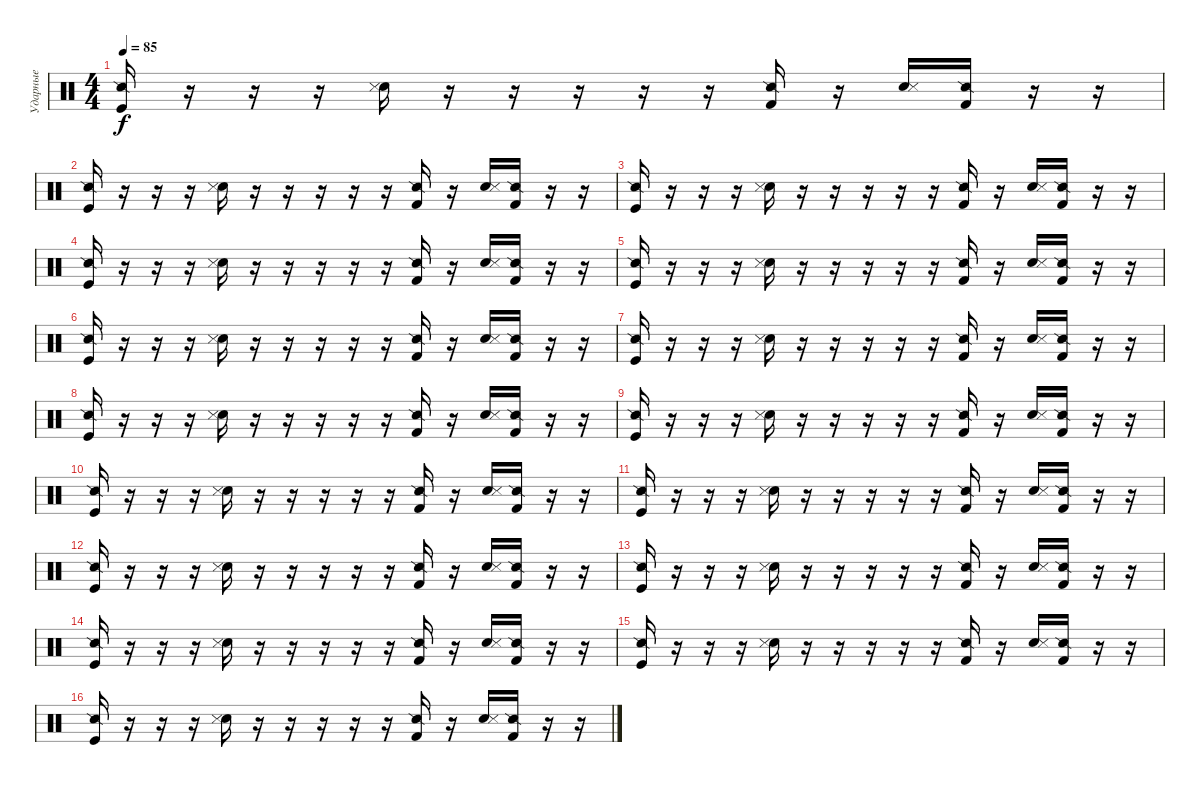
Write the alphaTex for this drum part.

\track ("Ударные" "Ударные") {instrument percussion}
\staff {score}
\articulation defaults
\ts (4 4)
\tempo 85
\clef neutral
\ks c
("Kick (hit)" "Snare (side stick) 2").16{dy f} r.16 r.16 r.16 ("Snare (hit) 2" "Snare (side stick) 3").16 r.16 r.16 r.16 r.16 r.16 ("Kick (hit) 2" "Snare (side stick) 2").16 r.16 ("Snare (hit) 2" "Snare (side stick) 3").16 ("Kick (hit) 2" "Snare (side stick) 2").16 r.16 r.16 |
("Kick (hit)" "Snare (side stick) 2").16 r.16 r.16 r.16 ("Snare (hit) 2" "Snare (side stick) 3").16 r.16 r.16 r.16 r.16 r.16 ("Kick (hit) 2" "Snare (side stick) 2").16 r.16 ("Snare (hit) 2" "Snare (side stick) 3").16 ("Kick (hit) 2" "Snare (side stick) 2").16 r.16 r.16 |
("Kick (hit)" "Snare (side stick) 2").16 r.16 r.16 r.16 ("Snare (hit) 2" "Snare (side stick) 3").16 r.16 r.16 r.16 r.16 r.16 ("Kick (hit) 2" "Snare (side stick) 2").16 r.16 ("Snare (hit) 2" "Snare (side stick) 3").16 ("Kick (hit) 2" "Snare (side stick) 2").16 r.16 r.16 |
("Kick (hit)" "Snare (side stick) 2").16 r.16 r.16 r.16 ("Snare (hit) 2" "Snare (side stick) 3").16 r.16 r.16 r.16 r.16 r.16 ("Kick (hit) 2" "Snare (side stick) 2").16 r.16 ("Snare (hit) 2" "Snare (side stick) 3").16 ("Kick (hit) 2" "Snare (side stick) 2").16 r.16 r.16 |
("Kick (hit)" "Snare (side stick) 2").16 r.16 r.16 r.16 ("Snare (hit) 2" "Snare (side stick) 3").16 r.16 r.16 r.16 r.16 r.16 ("Kick (hit) 2" "Snare (side stick) 2").16 r.16 ("Snare (hit) 2" "Snare (side stick) 3").16 ("Kick (hit) 2" "Snare (side stick) 2").16 r.16 r.16 |
("Kick (hit)" "Snare (side stick) 2").16 r.16 r.16 r.16 ("Snare (hit) 2" "Snare (side stick) 3").16 r.16 r.16 r.16 r.16 r.16 ("Kick (hit) 2" "Snare (side stick) 2").16 r.16 ("Snare (hit) 2" "Snare (side stick) 3").16 ("Kick (hit) 2" "Snare (side stick) 2").16 r.16 r.16 |
("Kick (hit)" "Snare (side stick) 2").16 r.16 r.16 r.16 ("Snare (hit) 2" "Snare (side stick) 3").16 r.16 r.16 r.16 r.16 r.16 ("Kick (hit) 2" "Snare (side stick) 2").16 r.16 ("Snare (hit) 2" "Snare (side stick) 3").16 ("Kick (hit) 2" "Snare (side stick) 2").16 r.16 r.16 |
("Kick (hit)" "Snare (side stick) 2").16 r.16 r.16 r.16 ("Snare (hit) 2" "Snare (side stick) 3").16 r.16 r.16 r.16 r.16 r.16 ("Kick (hit) 2" "Snare (side stick) 2").16 r.16 ("Snare (hit) 2" "Snare (side stick) 3").16 ("Kick (hit) 2" "Snare (side stick) 2").16 r.16 r.16 |
("Kick (hit)" "Snare (side stick) 2").16 r.16 r.16 r.16 ("Snare (hit) 2" "Snare (side stick) 3").16 r.16 r.16 r.16 r.16 r.16 ("Kick (hit) 2" "Snare (side stick) 2").16 r.16 ("Snare (hit) 2" "Snare (side stick) 3").16 ("Kick (hit) 2" "Snare (side stick) 2").16 r.16 r.16 |
("Kick (hit)" "Snare (side stick) 2").16 r.16 r.16 r.16 ("Snare (hit) 2" "Snare (side stick) 3").16 r.16 r.16 r.16 r.16 r.16 ("Kick (hit) 2" "Snare (side stick) 2").16 r.16 ("Snare (hit) 2" "Snare (side stick) 3").16 ("Kick (hit) 2" "Snare (side stick) 2").16 r.16 r.16 |
("Kick (hit)" "Snare (side stick) 2").16 r.16 r.16 r.16 ("Snare (hit) 2" "Snare (side stick) 3").16 r.16 r.16 r.16 r.16 r.16 ("Kick (hit) 2" "Snare (side stick) 2").16 r.16 ("Snare (hit) 2" "Snare (side stick) 3").16 ("Kick (hit) 2" "Snare (side stick) 2").16 r.16 r.16 |
("Kick (hit)" "Snare (side stick) 2").16 r.16 r.16 r.16 ("Snare (hit) 2" "Snare (side stick) 3").16 r.16 r.16 r.16 r.16 r.16 ("Kick (hit) 2" "Snare (side stick) 2").16 r.16 ("Snare (hit) 2" "Snare (side stick) 3").16 ("Kick (hit) 2" "Snare (side stick) 2").16 r.16 r.16 |
("Kick (hit)" "Snare (side stick) 2").16 r.16 r.16 r.16 ("Snare (hit) 2" "Snare (side stick) 3").16 r.16 r.16 r.16 r.16 r.16 ("Kick (hit) 2" "Snare (side stick) 2").16 r.16 ("Snare (hit) 2" "Snare (side stick) 3").16 ("Kick (hit) 2" "Snare (side stick) 2").16 r.16 r.16 |
("Kick (hit)" "Snare (side stick) 2").16 r.16 r.16 r.16 ("Snare (hit) 2" "Snare (side stick) 3").16 r.16 r.16 r.16 r.16 r.16 ("Kick (hit) 2" "Snare (side stick) 2").16 r.16 ("Snare (hit) 2" "Snare (side stick) 3").16 ("Kick (hit) 2" "Snare (side stick) 2").16 r.16 r.16 |
("Kick (hit)" "Snare (side stick) 2").16 r.16 r.16 r.16 ("Snare (hit) 2" "Snare (side stick) 3").16 r.16 r.16 r.16 r.16 r.16 ("Kick (hit) 2" "Snare (side stick) 2").16 r.16 ("Snare (hit) 2" "Snare (side stick) 3").16 ("Kick (hit) 2" "Snare (side stick) 2").16 r.16 r.16 |
("Kick (hit)" "Snare (side stick) 2").16 r.16 r.16 r.16 ("Snare (hit) 2" "Snare (side stick) 3").16 r.16 r.16 r.16 r.16 r.16 ("Kick (hit) 2" "Snare (side stick) 2").16 r.16 ("Snare (hit) 2" "Snare (side stick) 3").16 ("Kick (hit) 2" "Snare (side stick) 2").16 r.16 r.16
